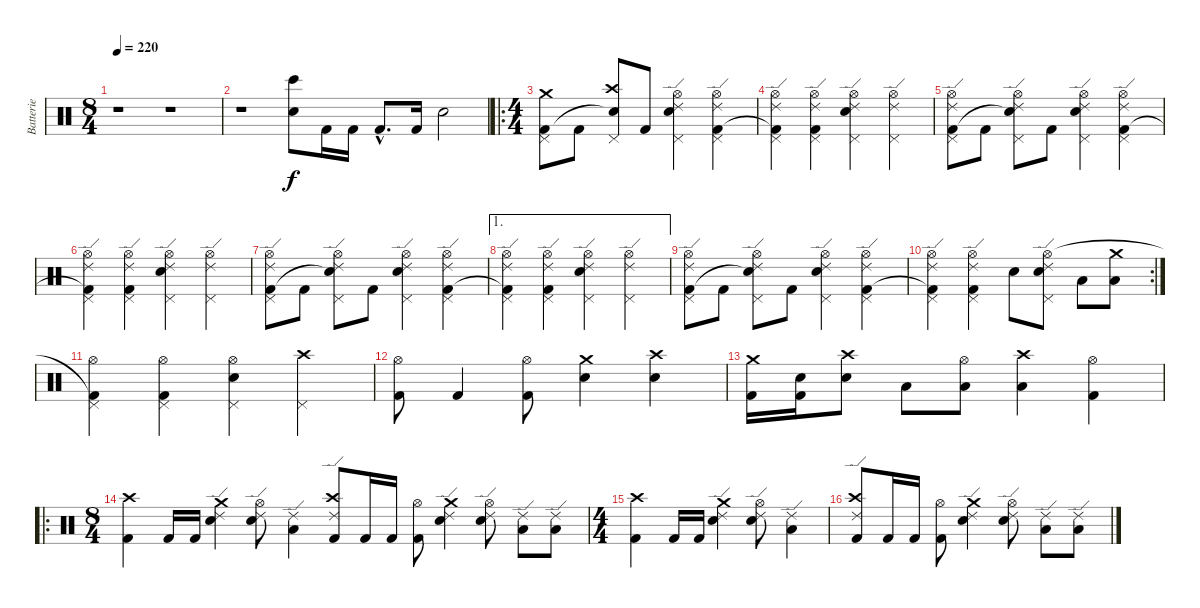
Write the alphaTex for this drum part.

\track ("Batterie" "Batterie") {instrument percussion}
\staff {score}
\articulation defaults
\ts (8 4)
\tempo 220
\clef neutral
\ks c
r.1{dy f} r.1 |
r.1 ("Electric Snare (hit)" "Bongo High (hit)").8 "Kick (hit) 2".16 "Kick (hit) 2".16 "Kick (hit) 2"{hac}.8{d} "Kick (hit) 2".16 "Electric Snare (hit)".2 |
\ro
\ts (4 4)
("Pedal Hi-Hat (hit)" "Crash medium (hit)" "Kick (hit) 2").8 "Kick (hit) 2".8 ("Pedal Hi-Hat (hit)" "Crash high (hit)" "Snare (hit)"{t}).8 "Kick (hit) 2".8 ("Ride (edge) 2" "Pedal Hi-Hat (hit)" "Hi-Hat (open)" "Electric Snare (hit)").4 ("Ride (edge) 2" "Pedal Hi-Hat (hit)" "Hi-Hat (open)" "Kick (hit) 2").4 |
("Ride (edge) 2" "Pedal Hi-Hat (hit)" "Hi-Hat (open)" "Kick (hit) 2"{t}).4 ("Ride (edge) 2" "Pedal Hi-Hat (hit)" "Hi-Hat (open)" "Kick (hit) 2").4 ("Ride (edge) 2" "Pedal Hi-Hat (hit)" "Hi-Hat (open)" "Electric Snare (hit)").4 ("Ride (edge) 2" "Pedal Hi-Hat (hit)" "Hi-Hat (open)").4 |
("Ride (edge) 2" "Pedal Hi-Hat (hit)" "Hi-Hat (open)" "Kick (hit) 2").8 "Kick (hit) 2".8 ("Ride (edge) 2" "Pedal Hi-Hat (hit)" "Hi-Hat (open)" "Snare (hit)"{t}).8 "Kick (hit) 2".8 ("Ride (edge) 2" "Pedal Hi-Hat (hit)" "Hi-Hat (open)" "Electric Snare (hit)").4 ("Ride (edge) 2" "Pedal Hi-Hat (hit)" "Hi-Hat (open)" "Kick (hit) 2").4 |
("Ride (edge) 2" "Pedal Hi-Hat (hit)" "Hi-Hat (open)" "Kick (hit) 2"{t}).4 ("Ride (edge) 2" "Pedal Hi-Hat (hit)" "Hi-Hat (open)" "Kick (hit) 2").4 ("Ride (edge) 2" "Pedal Hi-Hat (hit)" "Hi-Hat (open)" "Electric Snare (hit)").4 ("Ride (edge) 2" "Pedal Hi-Hat (hit)" "Hi-Hat (open)").4 |
("Ride (edge) 2" "Pedal Hi-Hat (hit)" "Hi-Hat (open)" "Kick (hit) 2").8 "Kick (hit) 2".8 ("Ride (edge) 2" "Pedal Hi-Hat (hit)" "Hi-Hat (open)" "Snare (hit)"{t}).8 "Kick (hit) 2".8 ("Ride (edge) 2" "Pedal Hi-Hat (hit)" "Hi-Hat (open)" "Electric Snare (hit)").4 ("Ride (edge) 2" "Pedal Hi-Hat (hit)" "Hi-Hat (open)" "Kick (hit) 2").4 |
\ae 1
("Ride (edge) 2" "Pedal Hi-Hat (hit)" "Hi-Hat (open)" "Kick (hit) 2"{t}).4 ("Ride (edge) 2" "Pedal Hi-Hat (hit)" "Hi-Hat (open)" "Kick (hit) 2").4 ("Ride (edge) 2" "Pedal Hi-Hat (hit)" "Hi-Hat (open)" "Electric Snare (hit)").4 ("Ride (edge) 2" "Pedal Hi-Hat (hit)" "Hi-Hat (open)").4 |
("Ride (edge) 2" "Pedal Hi-Hat (hit)" "Hi-Hat (open)" "Kick (hit) 2").8 "Kick (hit) 2".8 ("Ride (edge) 2" "Pedal Hi-Hat (hit)" "Hi-Hat (open)" "Snare (hit)"{t}).8 "Kick (hit) 2".8 ("Ride (edge) 2" "Pedal Hi-Hat (hit)" "Hi-Hat (open)" "Electric Snare (hit)").4 ("Ride (edge) 2" "Pedal Hi-Hat (hit)" "Hi-Hat (open)" "Kick (hit) 2").4 |
\rc 2
("Ride (edge) 2" "Pedal Hi-Hat (hit)" "Hi-Hat (open)" "Kick (hit) 2"{t}).4 ("Ride (edge) 2" "Pedal Hi-Hat (hit)" "Hi-Hat (open)" "Kick (hit) 2").4 "Electric Snare (hit)".8 ("Ride (edge) 2" "Pedal Hi-Hat (hit)" "Hi-Hat (open)" "Electric Snare (hit)").8 "Low Tom (hit)".8 ("Crash medium (hit)" "Low Tom (hit)").8 |
("Pedal Hi-Hat (hit)" "Hi-Hat (open)" "Kick (hit) 2"{t}).4 ("Pedal Hi-Hat (hit)" "Hi-Hat (open)" "Kick (hit) 2").4 ("Pedal Hi-Hat (hit)" "Hi-Hat (open)" "Electric Snare (hit)").4 ("Pedal Hi-Hat (hit)" "Crash high (hit)").4 |
("Hi-Hat (open)" "Kick (hit) 2").8 "Kick (hit) 2".4 ("Hi-Hat (open)" "Kick (hit) 2").8 ("Crash medium (hit)" "Electric Snare (hit)").4 ("Crash high (hit)" "Electric Snare (hit)").4 |
("Crash medium (hit)" "Kick (hit) 2").16 ("Electric Snare (hit)" "Kick (hit) 2").16 ("Crash high (hit)" "Electric Snare (hit)").8 "Low Tom (hit)".8 ("Hi-Hat (open)" "Low Tom (hit)").8 ("Crash high (hit)" "Low Floor Tom (hit)").4 ("Hi-Hat (open)" "Kick (hit) 2").4 |
\ro
\ts (8 4)
("Crash high (hit)" "Kick (hit) 2").4 "Kick (hit) 2".16 "Kick (hit) 2".16 ("Ride (edge) 2" "Crash medium (hit)" "Electric Snare (hit)").4 ("Ride (edge) 2" "Hi-Hat (open)" "Electric Snare (hit)").8 ("Ride (edge) 2" "Low Tom (hit)").4 ("Ride (edge) 2" "Crash high (hit)" "Kick (hit) 2").8 "Kick (hit) 2".16 "Kick (hit) 2".16 ("Hi-Hat (open)" "Kick (hit) 2").8 ("Ride (edge) 2" "Crash medium (hit)" "Electric Snare (hit)").4 ("Ride (edge) 2" "Hi-Hat (open)" "Electric Snare (hit)").8 ("Ride (edge) 2" "Low Tom (hit)").8 ("Ride (edge) 2" "Low Tom (hit)").8 |
\ts (4 4)
("Crash high (hit)" "Kick (hit) 2").4 "Kick (hit) 2".16 "Kick (hit) 2".16 ("Ride (edge) 2" "Crash medium (hit)" "Electric Snare (hit)").4 ("Ride (edge) 2" "Hi-Hat (open)" "Electric Snare (hit)").8 ("Ride (edge) 2" "Low Tom (hit)").4 |
("Ride (edge) 2" "Crash high (hit)" "Kick (hit) 2").8 "Kick (hit) 2".16 "Kick (hit) 2".16 ("Hi-Hat (open)" "Kick (hit) 2").8 ("Ride (edge) 2" "Crash medium (hit)" "Electric Snare (hit)").4 ("Ride (edge) 2" "Hi-Hat (open)" "Electric Snare (hit)").8 ("Ride (edge) 2" "Low Tom (hit)").8 ("Ride (edge) 2" "Low Tom (hit)").8
